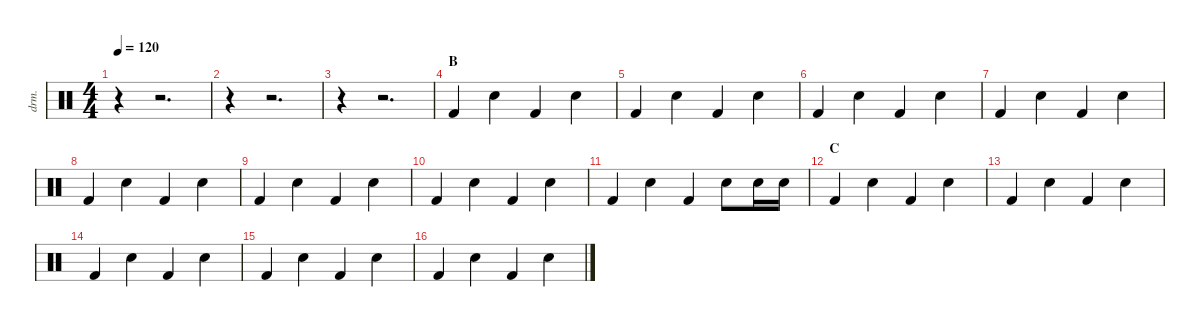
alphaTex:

\defaultSystemsLayout 4
\hideDynamics
\bracketExtendMode nobrackets
\otherSystemsTrackNameOrientation horizontal
\track ("Batterie" "drm.") {instrument percussion}
\staff {score}
\articulation defaults
\ts (4 4)
\tempo 120
\clef neutral
\ks c
r.4{dy f} r.2{d} |
r.4 r.2{d} |
r.4 r.2{d} |
\section ("" "B")
"Kick (hit) 2".4 "Snare (hit) 2".4 "Kick (hit) 2".4 "Snare (hit) 2".4 |
"Kick (hit) 2".4 "Snare (hit) 2".4 "Kick (hit) 2".4 "Snare (hit) 2".4 |
"Kick (hit) 2".4 "Snare (hit) 2".4 "Kick (hit) 2".4 "Snare (hit) 2".4 |
"Kick (hit) 2".4 "Snare (hit) 2".4 "Kick (hit) 2".4 "Snare (hit) 2".4 |
"Kick (hit) 2".4 "Snare (hit) 2".4 "Kick (hit) 2".4 "Snare (hit) 2".4 |
"Kick (hit) 2".4 "Snare (hit) 2".4 "Kick (hit) 2".4 "Snare (hit) 2".4 |
"Kick (hit) 2".4 "Snare (hit) 2".4 "Kick (hit) 2".4 "Snare (hit) 2".4 |
"Kick (hit) 2".4 "Snare (hit) 2".4 "Kick (hit) 2".4 "Snare (hit) 2".8 "Snare (hit) 2".16 "Snare (hit) 2".16 |
\section ("" "C")
"Kick (hit) 2".4 "Snare (hit) 2".4 "Kick (hit) 2".4 "Snare (hit) 2".4 |
"Kick (hit) 2".4 "Snare (hit) 2".4 "Kick (hit) 2".4 "Snare (hit) 2".4 |
"Kick (hit) 2".4 "Snare (hit) 2".4 "Kick (hit) 2".4 "Snare (hit) 2".4 |
"Kick (hit) 2".4 "Snare (hit) 2".4 "Kick (hit) 2".4 "Snare (hit) 2".4 |
"Kick (hit) 2".4 "Snare (hit) 2".4 "Kick (hit) 2".4 "Snare (hit) 2".4
